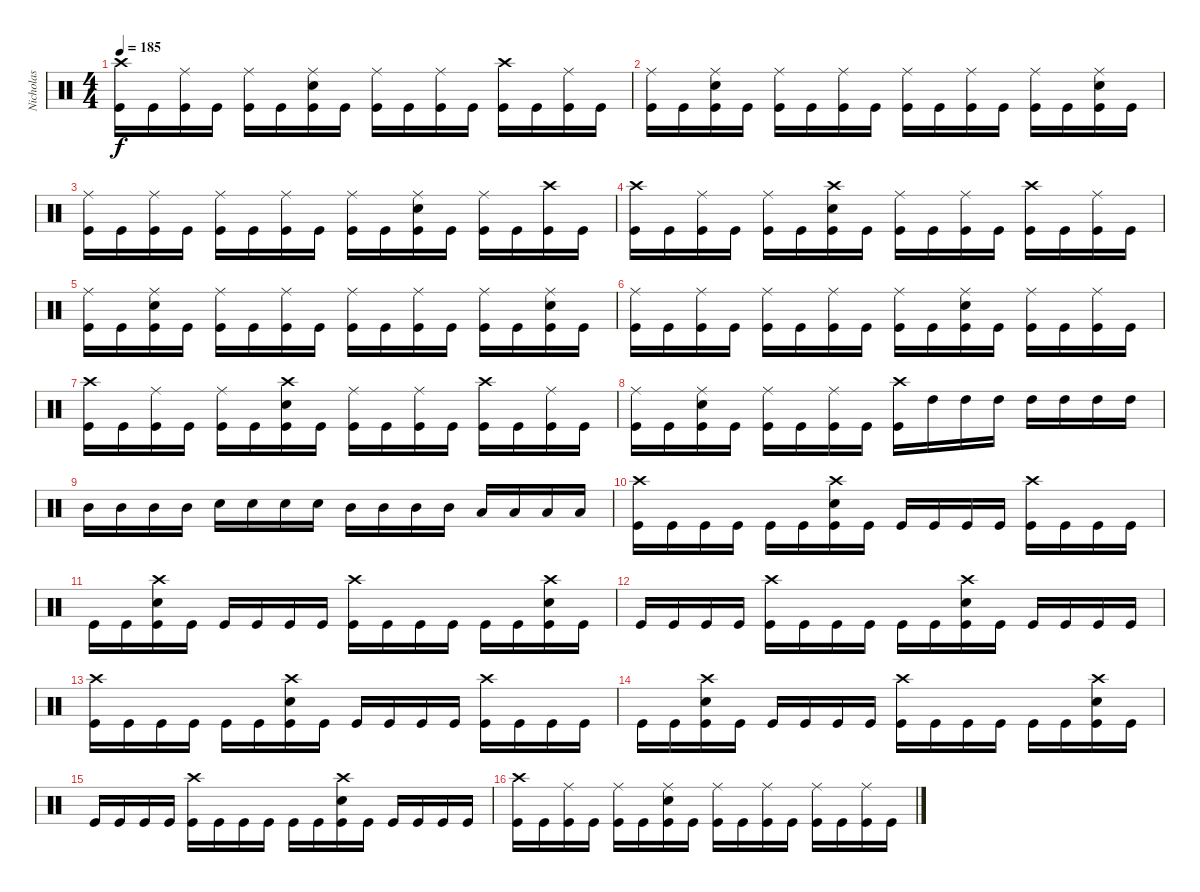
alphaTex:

\track ("Nicholas" "Nicholas") {instrument percussion}
\staff {score}
\articulation defaults
\ts (4 4)
\tempo 185
\clef neutral
\ks c
("Crash high (hit)" "Kick (hit)").16{dy f} "Kick (hit)".16 ("Ride (middle)" "Kick (hit)").16 "Kick (hit)".16 ("Ride (middle)" "Kick (hit)").16 "Kick (hit)".16 ("Ride (middle)" "Electric Snare (hit)" "Kick (hit)").16 "Kick (hit)".16 ("Ride (middle)" "Kick (hit)").16 "Kick (hit)".16 ("Ride (middle)" "Kick (hit)").16 "Kick (hit)".16 ("Crash high (hit)" "Kick (hit)").16 "Kick (hit)".16 ("Ride (middle)" "Kick (hit)").16 "Kick (hit)".16 |
("Ride (middle)" "Kick (hit)").16 "Kick (hit)".16 ("Ride (middle)" "Electric Snare (hit)" "Kick (hit)").16 "Kick (hit)".16 ("Ride (middle)" "Kick (hit)").16 "Kick (hit)".16 ("Ride (middle)" "Kick (hit)").16 "Kick (hit)".16 ("Ride (middle)" "Kick (hit)").16 "Kick (hit)".16 ("Ride (middle)" "Kick (hit)").16 "Kick (hit)".16 ("Ride (middle)" "Kick (hit)").16 "Kick (hit)".16 ("Ride (middle)" "Electric Snare (hit)" "Kick (hit)").16 "Kick (hit)".16 |
("Ride (middle)" "Kick (hit)").16 "Kick (hit)".16 ("Ride (middle)" "Kick (hit)").16 "Kick (hit)".16 ("Ride (middle)" "Kick (hit)").16 "Kick (hit)".16 ("Ride (middle)" "Kick (hit)").16 "Kick (hit)".16 ("Ride (middle)" "Kick (hit)").16 "Kick (hit)".16 ("Ride (middle)" "Electric Snare (hit)" "Kick (hit)").16 "Kick (hit)".16 ("Ride (middle)" "Kick (hit)").16 "Kick (hit)".16 ("Crash high (hit)" "Kick (hit)").16 "Kick (hit)".16 |
("Crash high (hit)" "Kick (hit)").16 "Kick (hit)".16 ("Ride (middle)" "Kick (hit)").16 "Kick (hit)".16 ("Ride (middle)" "Kick (hit)").16 "Kick (hit)".16 ("Crash high (hit)" "Electric Snare (hit)" "Kick (hit)").16 "Kick (hit)".16 ("Ride (middle)" "Kick (hit)").16 "Kick (hit)".16 ("Ride (middle)" "Kick (hit)").16 "Kick (hit)".16 ("Crash high (hit)" "Kick (hit)").16 "Kick (hit)".16 ("Ride (middle)" "Kick (hit)").16 "Kick (hit)".16 |
("Ride (middle)" "Kick (hit)").16 "Kick (hit)".16 ("Ride (middle)" "Electric Snare (hit)" "Kick (hit)").16 "Kick (hit)".16 ("Ride (middle)" "Kick (hit)").16 "Kick (hit)".16 ("Ride (middle)" "Kick (hit)").16 "Kick (hit)".16 ("Ride (middle)" "Kick (hit)").16 "Kick (hit)".16 ("Ride (middle)" "Kick (hit)").16 "Kick (hit)".16 ("Ride (middle)" "Kick (hit)").16 "Kick (hit)".16 ("Ride (middle)" "Electric Snare (hit)" "Kick (hit)").16 "Kick (hit)".16 |
("Ride (middle)" "Kick (hit)").16 "Kick (hit)".16 ("Ride (middle)" "Kick (hit)").16 "Kick (hit)".16 ("Ride (middle)" "Kick (hit)").16 "Kick (hit)".16 ("Ride (middle)" "Kick (hit)").16 "Kick (hit)".16 ("Ride (middle)" "Kick (hit)").16 "Kick (hit)".16 ("Ride (middle)" "Electric Snare (hit)" "Kick (hit)").16 "Kick (hit)".16 ("Ride (middle)" "Kick (hit)").16 "Kick (hit)".16 ("Ride (middle)" "Kick (hit)").16 "Kick (hit)".16 |
("Crash high (hit)" "Kick (hit)").16 "Kick (hit)".16 ("Ride (middle)" "Kick (hit)").16 "Kick (hit)".16 ("Ride (middle)" "Kick (hit)").16 "Kick (hit)".16 ("Crash high (hit)" "Electric Snare (hit)" "Kick (hit)").16 "Kick (hit)".16 ("Ride (middle)" "Kick (hit)").16 "Kick (hit)".16 ("Ride (middle)" "Kick (hit)").16 "Kick (hit)".16 ("Crash high (hit)" "Kick (hit)").16 "Kick (hit)".16 ("Ride (middle)" "Kick (hit)").16 "Kick (hit)".16 |
("Ride (middle)" "Kick (hit)").16 "Kick (hit)".16 ("Ride (middle)" "Electric Snare (hit)" "Kick (hit)").16 "Kick (hit)".16 ("Ride (middle)" "Kick (hit)").16 "Kick (hit)".16 ("Ride (middle)" "Kick (hit)").16 "Kick (hit)".16 ("Crash high (hit)" "Kick (hit)").16 "High Tom (hit)".16 "High Tom (hit)".16 "High Tom (hit)".16 "High Tom (hit)".16 "High Tom (hit)".16 "High Tom (hit)".16 "High Tom (hit)".16 |
"Mid Tom (hit)".16 "Mid Tom (hit)".16 "Mid Tom (hit)".16 "Mid Tom (hit)".16 "Electric Snare (hit)".16 "Electric Snare (hit)".16 "Electric Snare (hit)".16 "Electric Snare (hit)".16 "Mid Tom (hit)".16 "Mid Tom (hit)".16 "Mid Tom (hit)".16 "Mid Tom (hit)".16 "Low Tom (hit)".16 "Low Tom (hit)".16 "Low Tom (hit)".16 "Low Tom (hit)".16 |
("Crash high (hit)" "Kick (hit)").16 "Kick (hit)".16 "Kick (hit)".16 "Kick (hit)".16 "Kick (hit)".16 "Kick (hit)".16 ("Crash high (hit)" "Electric Snare (hit)" "Kick (hit)").16 "Kick (hit)".16 "Kick (hit)".16 "Kick (hit)".16 "Kick (hit)".16 "Kick (hit)".16 ("Crash high (hit)" "Kick (hit)").16 "Kick (hit)".16 "Kick (hit)".16 "Kick (hit)".16 |
"Kick (hit)".16 "Kick (hit)".16 ("Crash high (hit)" "Electric Snare (hit)" "Kick (hit)").16 "Kick (hit)".16 "Kick (hit)".16 "Kick (hit)".16 "Kick (hit)".16 "Kick (hit)".16 ("Crash high (hit)" "Kick (hit)").16 "Kick (hit)".16 "Kick (hit)".16 "Kick (hit)".16 "Kick (hit)".16 "Kick (hit)".16 ("Crash high (hit)" "Electric Snare (hit)" "Kick (hit)").16 "Kick (hit)".16 |
"Kick (hit)".16 "Kick (hit)".16 "Kick (hit)".16 "Kick (hit)".16 ("Crash high (hit)" "Kick (hit)").16 "Kick (hit)".16 "Kick (hit)".16 "Kick (hit)".16 "Kick (hit)".16 "Kick (hit)".16 ("Crash high (hit)" "Electric Snare (hit)" "Kick (hit)").16 "Kick (hit)".16 "Kick (hit)".16 "Kick (hit)".16 "Kick (hit)".16 "Kick (hit)".16 |
("Crash high (hit)" "Kick (hit)").16 "Kick (hit)".16 "Kick (hit)".16 "Kick (hit)".16 "Kick (hit)".16 "Kick (hit)".16 ("Crash high (hit)" "Electric Snare (hit)" "Kick (hit)").16 "Kick (hit)".16 "Kick (hit)".16 "Kick (hit)".16 "Kick (hit)".16 "Kick (hit)".16 ("Crash high (hit)" "Kick (hit)").16 "Kick (hit)".16 "Kick (hit)".16 "Kick (hit)".16 |
"Kick (hit)".16 "Kick (hit)".16 ("Crash high (hit)" "Electric Snare (hit)" "Kick (hit)").16 "Kick (hit)".16 "Kick (hit)".16 "Kick (hit)".16 "Kick (hit)".16 "Kick (hit)".16 ("Crash high (hit)" "Kick (hit)").16 "Kick (hit)".16 "Kick (hit)".16 "Kick (hit)".16 "Kick (hit)".16 "Kick (hit)".16 ("Crash high (hit)" "Electric Snare (hit)" "Kick (hit)").16 "Kick (hit)".16 |
"Kick (hit)".16 "Kick (hit)".16 "Kick (hit)".16 "Kick (hit)".16 ("Crash high (hit)" "Kick (hit)").16 "Kick (hit)".16 "Kick (hit)".16 "Kick (hit)".16 "Kick (hit)".16 "Kick (hit)".16 ("Crash high (hit)" "Electric Snare (hit)" "Kick (hit)").16 "Kick (hit)".16 "Kick (hit)".16 "Kick (hit)".16 "Kick (hit)".16 "Kick (hit)".16 |
("Crash high (hit)" "Kick (hit)").16 "Kick (hit)".16 ("Ride (middle)" "Kick (hit)").16 "Kick (hit)".16 ("Ride (middle)" "Kick (hit)").16 "Kick (hit)".16 ("Ride (middle)" "Electric Snare (hit)" "Kick (hit)").16 "Kick (hit)".16 ("Ride (middle)" "Kick (hit)").16 "Kick (hit)".16 ("Ride (middle)" "Kick (hit)").16 "Kick (hit)".16 ("Ride (middle)" "Kick (hit)").16 "Kick (hit)".16 ("Ride (middle)" "Kick (hit)").16 "Kick (hit)".16
